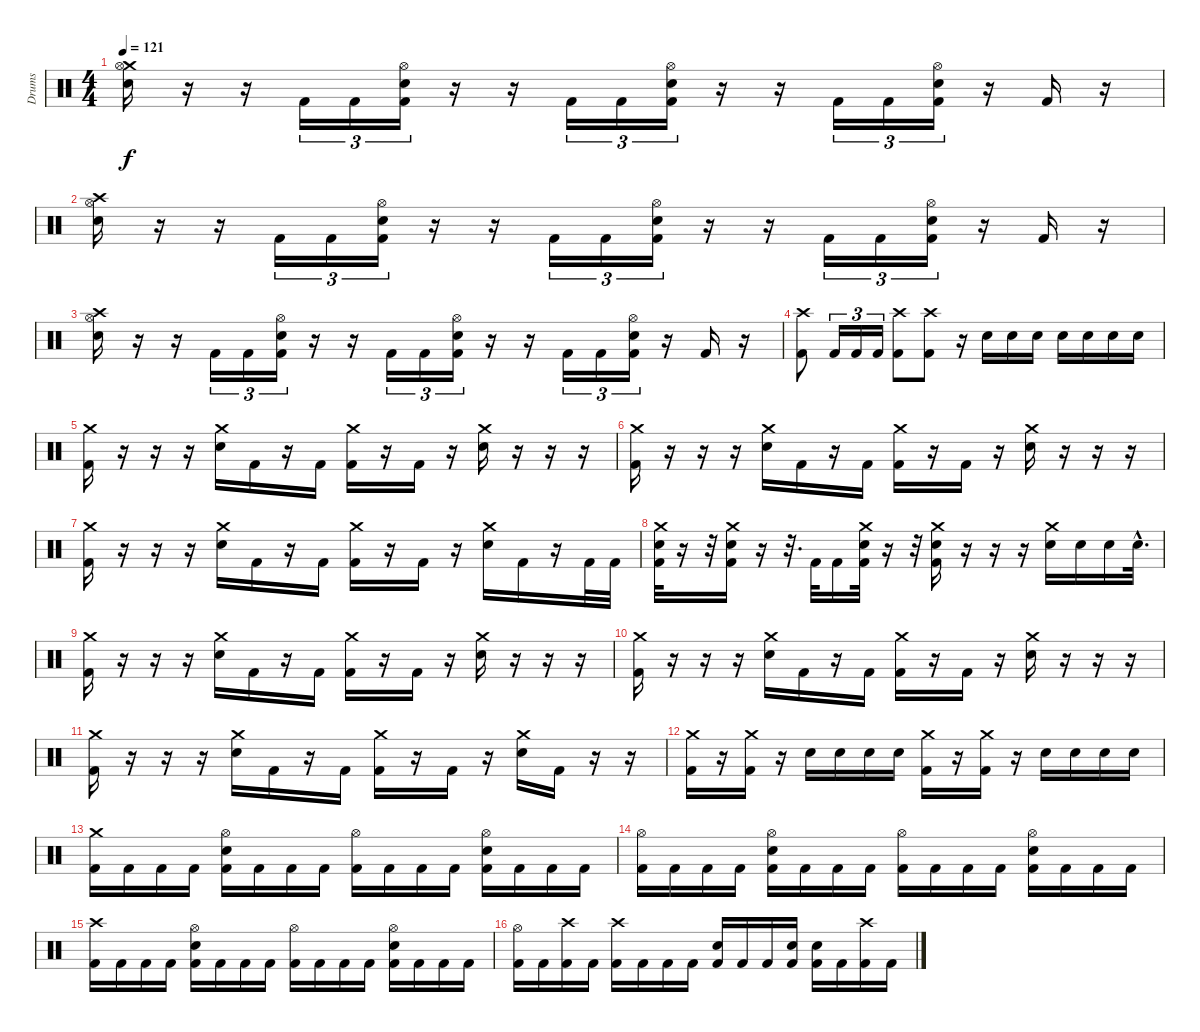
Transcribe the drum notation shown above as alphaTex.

\track ("Drums" "Drums") {instrument percussion}
\staff {score}
\articulation defaults
\ts (4 4)
\tempo 121
\clef neutral
\ks c
("Crash medium (hit)" "Hi-Hat (open)" "Electric Snare (hit)").16{dy f} r.16 r.16 "Kick (hit) 2".16{tu (3 2)} "Kick (hit) 2".16{tu (3 2)} ("Hi-Hat (open)" "Electric Snare (hit)" "Kick (hit) 2").16{tu (3 2)} r.16 r.16 "Kick (hit) 2".16{tu (3 2)} "Kick (hit) 2".16{tu (3 2)} ("Hi-Hat (open)" "Electric Snare (hit)" "Kick (hit) 2").16{tu (3 2)} r.16 r.16 "Kick (hit) 2".16{tu (3 2)} "Kick (hit) 2".16{tu (3 2)} ("Hi-Hat (open)" "Electric Snare (hit)" "Kick (hit) 2").16{tu (3 2)} r.16 "Kick (hit) 2".16 r.16 |
("Crash high (hit)" "Hi-Hat (open)" "Electric Snare (hit)").16 r.16 r.16 "Kick (hit) 2".16{tu (3 2)} "Kick (hit) 2".16{tu (3 2)} ("Hi-Hat (open)" "Electric Snare (hit)" "Kick (hit) 2").16{tu (3 2)} r.16 r.16 "Kick (hit) 2".16{tu (3 2)} "Kick (hit) 2".16{tu (3 2)} ("Hi-Hat (open)" "Electric Snare (hit)" "Kick (hit) 2").16{tu (3 2)} r.16 r.16 "Kick (hit) 2".16{tu (3 2)} "Kick (hit) 2".16{tu (3 2)} ("Hi-Hat (open)" "Electric Snare (hit)" "Kick (hit) 2").16{tu (3 2)} r.16 "Kick (hit) 2".16 r.16 |
("Crash high (hit)" "Hi-Hat (open)" "Electric Snare (hit)").16 r.16 r.16 "Kick (hit) 2".16{tu (3 2)} "Kick (hit) 2".16{tu (3 2)} ("Hi-Hat (open)" "Electric Snare (hit)" "Kick (hit) 2").16{tu (3 2)} r.16 r.16 "Kick (hit) 2".16{tu (3 2)} "Kick (hit) 2".16{tu (3 2)} ("Hi-Hat (open)" "Electric Snare (hit)" "Kick (hit) 2").16{tu (3 2)} r.16 r.16 "Kick (hit) 2".16{tu (3 2)} "Kick (hit) 2".16{tu (3 2)} ("Hi-Hat (open)" "Electric Snare (hit)" "Kick (hit) 2").16{tu (3 2)} r.16 "Kick (hit) 2".16 r.16 |
("Crash high (hit)" "Kick (hit) 2").8 "Kick (hit) 2".16{tu (3 2)} "Kick (hit) 2".16{tu (3 2)} "Kick (hit) 2".16{tu (3 2)} ("Crash high (hit)" "Kick (hit) 2").8 ("Crash high (hit)" "Kick (hit) 2").8 r.16 "Electric Snare (hit)".16 "Electric Snare (hit)".16 "Electric Snare (hit)".16 "Snare (hit) 2".16 "Snare (hit) 2".16 "Snare (hit) 2".16 "Snare (hit) 2".16 |
("Crash medium (hit)" "Kick (hit) 2").16 r.16 r.16 r.16 ("Crash medium (hit)" "Electric Snare (hit)").16 "Kick (hit) 2".16 r.16 "Kick (hit) 2".16 ("Crash medium (hit)" "Kick (hit) 2").16 r.16 "Kick (hit) 2".16 r.16 ("Crash medium (hit)" "Electric Snare (hit)").16 r.16 r.16 r.16 |
("Crash medium (hit)" "Kick (hit) 2").16 r.16 r.16 r.16 ("Crash medium (hit)" "Electric Snare (hit)").16 "Kick (hit) 2".16 r.16 "Kick (hit) 2".16 ("Crash medium (hit)" "Kick (hit) 2").16 r.16 "Kick (hit) 2".16 r.16 ("Crash medium (hit)" "Electric Snare (hit)").16 r.16 r.16 r.16 |
("Crash medium (hit)" "Kick (hit) 2").16 r.16 r.16 r.16 ("Crash medium (hit)" "Electric Snare (hit)").16 "Kick (hit) 2".16 r.16 "Kick (hit) 2".16 ("Crash medium (hit)" "Kick (hit) 2").16 r.16 "Kick (hit) 2".16 r.16 ("Crash medium (hit)" "Electric Snare (hit)").16 "Kick (hit) 2".16 r.16 "Kick (hit) 2".32 "Kick (hit) 2".32 |
("Crash medium (hit)" "Electric Snare (hit)" "Kick (hit) 2").32 r.16 r.32 ("Crash medium (hit)" "Electric Snare (hit)" "Kick (hit) 2").16 r.16 r.32{d} "Kick (hit) 2".32 "Kick (hit) 2".16 ("Crash medium (hit)" "Electric Snare (hit)" "Kick (hit) 2").32 r.16 r.32 ("Crash medium (hit)" "Electric Snare (hit)" "Kick (hit) 2").16 r.16 r.16 r.16 ("Crash medium (hit)" "Electric Snare (hit)").16 "Snare (hit) 2".16 "Snare (hit) 2".16 "Snare (hit) 2"{hac}.32{d} |
("Crash medium (hit)" "Kick (hit) 2").16 r.16 r.16 r.16 ("Crash medium (hit)" "Electric Snare (hit)").16 "Kick (hit) 2".16 r.16 "Kick (hit) 2".16 ("Crash medium (hit)" "Kick (hit) 2").16 r.16 "Kick (hit) 2".16 r.16 ("Crash medium (hit)" "Electric Snare (hit)").16 r.16 r.16 r.16 |
("Crash medium (hit)" "Kick (hit) 2").16 r.16 r.16 r.16 ("Crash medium (hit)" "Electric Snare (hit)").16 "Kick (hit) 2".16 r.16 "Kick (hit) 2".16 ("Crash medium (hit)" "Kick (hit) 2").16 r.16 "Kick (hit) 2".16 r.16 ("Crash medium (hit)" "Electric Snare (hit)").16 r.16 r.16 r.16 |
("Crash medium (hit)" "Kick (hit) 2").16 r.16 r.16 r.16 ("Crash medium (hit)" "Electric Snare (hit)").16 "Kick (hit) 2".16 r.16 "Kick (hit) 2".16 ("Crash medium (hit)" "Kick (hit) 2").16 r.16 "Kick (hit) 2".16 r.16 ("Crash medium (hit)" "Electric Snare (hit)").16 "Kick (hit) 2".16 r.16 r.16 |
("Crash medium (hit)" "Kick (hit) 2").16 r.16 ("Crash medium (hit)" "Kick (hit) 2").16 r.16 "Electric Snare (hit)".16 "Electric Snare (hit)".16 "Electric Snare (hit)".16 "Electric Snare (hit)".16 ("Crash medium (hit)" "Kick (hit) 2").16 r.16 ("Crash medium (hit)" "Kick (hit) 2").16 r.16 "Electric Snare (hit)".16 "Electric Snare (hit)".16 "Electric Snare (hit)".16 "Electric Snare (hit)".16 |
("Crash medium (hit)" "Kick (hit) 2").16 "Kick (hit) 2".16 "Kick (hit) 2".16 "Kick (hit) 2".16 ("Hi-Hat (open)" "Electric Snare (hit)" "Kick (hit) 2").16 "Kick (hit) 2".16 "Kick (hit) 2".16 "Kick (hit) 2".16 ("Hi-Hat (open)" "Kick (hit) 2").16 "Kick (hit) 2".16 "Kick (hit) 2".16 "Kick (hit) 2".16 ("Hi-Hat (open)" "Electric Snare (hit)" "Kick (hit) 2").16 "Kick (hit) 2".16 "Kick (hit) 2".16 "Kick (hit) 2".16 |
("Hi-Hat (open)" "Kick (hit) 2").16 "Kick (hit) 2".16 "Kick (hit) 2".16 "Kick (hit) 2".16 ("Hi-Hat (open)" "Electric Snare (hit)" "Kick (hit) 2").16 "Kick (hit) 2".16 "Kick (hit) 2".16 "Kick (hit) 2".16 ("Hi-Hat (open)" "Kick (hit) 2").16 "Kick (hit) 2".16 "Kick (hit) 2".16 "Kick (hit) 2".16 ("Hi-Hat (open)" "Electric Snare (hit)" "Kick (hit) 2").16 "Kick (hit) 2".16 "Kick (hit) 2".16 "Kick (hit) 2".16 |
("Crash high (hit)" "Kick (hit) 2").16 "Kick (hit) 2".16 "Kick (hit) 2".16 "Kick (hit) 2".16 ("Hi-Hat (open)" "Electric Snare (hit)" "Kick (hit) 2").16 "Kick (hit) 2".16 "Kick (hit) 2".16 "Kick (hit) 2".16 ("Hi-Hat (open)" "Kick (hit) 2").16 "Kick (hit) 2".16 "Kick (hit) 2".16 "Kick (hit) 2".16 ("Hi-Hat (open)" "Electric Snare (hit)" "Kick (hit) 2").16 "Kick (hit) 2".16 "Kick (hit) 2".16 "Kick (hit) 2".16 |
("Hi-Hat (open)" "Kick (hit) 2").16 "Kick (hit) 2".16 ("Crash high (hit)" "Kick (hit) 2").16 "Kick (hit) 2".16 ("Crash high (hit)" "Kick (hit) 2").16 "Kick (hit) 2".16 "Kick (hit) 2".16 "Kick (hit) 2".16 ("Electric Snare (hit)" "Kick (hit) 2").16 "Kick (hit) 2".16 "Kick (hit) 2".16 ("Snare (hit) 2" "Kick (hit) 2").16 ("Snare (hit) 2" "Kick (hit) 2").16 "Kick (hit) 2".16 ("Crash high (hit)" "Kick (hit) 2").16 "Kick (hit) 2".16
